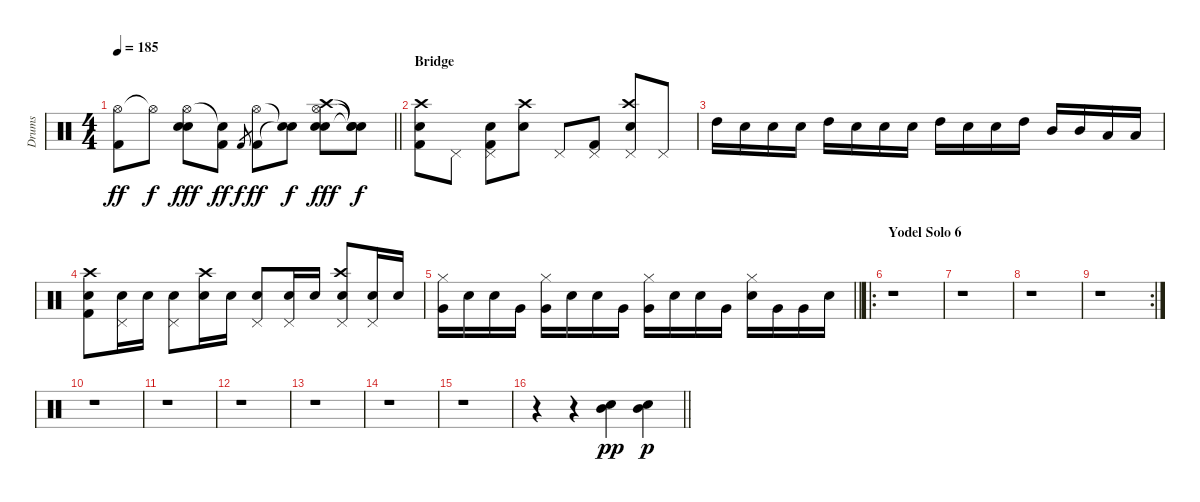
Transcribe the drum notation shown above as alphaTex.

\track ("Drums" "Drums") {instrument percussion}
\staff {score}
\articulation defaults
\ts (4 4)
\tempo 185
\clef neutral
\barLineRight lightlight
\ks c
("Hi-Hat (open)" "Kick (hit) 2").8{dy ff} "Hi-Hat (open)"{t}.8{dy f} ("Hi-Hat (open)" "Electric Snare (hit)" "Snare (hit)"{t}).8{dy fff} ("Snare (hit)"{t} "Kick (hit) 2").8{dy ff} "Kick (hit) 2".8{gr dy f} ("Hi-Hat (open)" "Kick (hit) 2").8{dy ff} ("Snare (hit)"{t} "Snare (hit)"{t}).8{dy f} ("Crash high (hit)" "Hi-Hat (open)" "Electric Snare (hit)" "Snare (hit)"{t}).8{dy fff} ("Snare (hit)"{t} "Snare (hit)"{t} "Snare (hit)"{t}).8{dy f} |
\section ("" "Bridge")
("Crash high (hit)" "Electric Snare (hit)" "Kick (hit) 2").8 "Pedal Hi-Hat (hit)".8 ("Pedal Hi-Hat (hit)" "Electric Snare (hit)" "Kick (hit) 2").8 ("Crash high (hit)" "Electric Snare (hit)").8 "Pedal Hi-Hat (hit)".8 ("Pedal Hi-Hat (hit)" "Kick (hit) 2").8 ("Crash high (hit)" "Pedal Hi-Hat (hit)" "Electric Snare (hit)").8 "Pedal Hi-Hat (hit)".8 |
"High Tom (hit)".16 "Electric Snare (hit)".16 "Electric Snare (hit)".16 "Electric Snare (hit)".16 "High Tom (hit)".16 "Electric Snare (hit)".16 "Electric Snare (hit)".16 "Electric Snare (hit)".16 "High Tom (hit)".16 "Electric Snare (hit)".16 "Electric Snare (hit)".16 "High Tom (hit)".16 "Mid Tom (hit)".16 "Mid Tom (hit)".16 "Low Tom (hit)".16 "Low Tom (hit)".16 |
("Crash high (hit)" "Electric Snare (hit)" "Kick (hit) 2").8 ("Pedal Hi-Hat (hit)" "Electric Snare (hit)").16 "Electric Snare (hit)".16 ("Pedal Hi-Hat (hit)" "Electric Snare (hit)").8 ("Crash high (hit)" "Electric Snare (hit)").16 "Electric Snare (hit)".16 ("Pedal Hi-Hat (hit)" "Electric Snare (hit)").8 ("Pedal Hi-Hat (hit)" "Electric Snare (hit)").16 "Electric Snare (hit)".16 ("Crash high (hit)" "Pedal Hi-Hat (hit)" "Electric Snare (hit)").8 ("Pedal Hi-Hat (hit)" "Electric Snare (hit)").16 "Electric Snare (hit)".16 |
\barLineRight lightlight
("Hi-Hat (closed)" "Very Low Tom (hit)").16 "Electric Snare (hit)".16 "Electric Snare (hit)".16 "Very Low Tom (hit)".16 ("Hi-Hat (closed)" "Very Low Tom (hit)").16 "Electric Snare (hit)".16 "Electric Snare (hit)".16 "Very Low Tom (hit)".16 ("Hi-Hat (closed)" "Very Low Tom (hit)").16 "Electric Snare (hit)".16 "Electric Snare (hit)".16 "Very Low Tom (hit)".16 ("Hi-Hat (closed)" "Electric Snare (hit)").16 "Very Low Tom (hit)".16 "Very Low Tom (hit)".16 "Electric Snare (hit)".16 |
\ro
\section ("" "Yodel Solo 6")
r.1 |
r.1 |
r.1 |
\rc 2
r.1 |
r.1 |
r.1 |
r.1 |
r.1 |
r.1 |
r.1 |
\barLineRight lightlight
r.4 r.4 ("Electric Snare (hit)" "Mid Tom (hit)").4{dy pp} ("Electric Snare (hit)" "Mid Tom (hit)").4{dy p}
